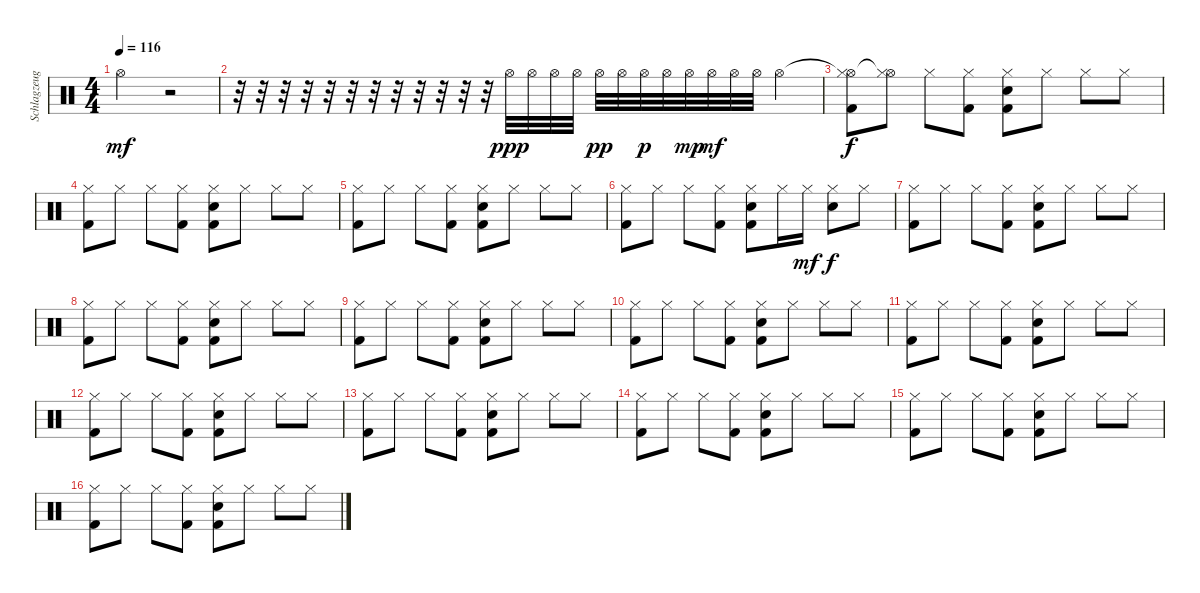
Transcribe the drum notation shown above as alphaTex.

\track ("Schlagzeug" "Schlagzeug") {instrument percussion}
\staff {score}
\articulation defaults
\ts (4 4)
\tempo 116
\clef neutral
\ks c "Hi-Hat (open)".2{dy mf}
r.2 |
r.32 r.32 r.32 r.32 r.32 r.32 r.32 r.32 r.32 r.32 r.32 r.32 "Hi-Hat (open)".32{dy ppp} "Hi-Hat (open)".32 "Hi-Hat (open)".32 "Hi-Hat (open)".32 "Hi-Hat (open)".32{dy pp} "Hi-Hat (open)".32 "Hi-Hat (open)".32{dy p} "Hi-Hat (open)".32 "Hi-Hat (open)".32{dy mp} "Hi-Hat (open)".32{dy mf} "Hi-Hat (open)".32 "Hi-Hat (open)".32 "Hi-Hat (open)".4 |
("Hi-Hat (open)"{t} "Hi-Hat (closed)" "Kick (hit) 2").8{dy f} ("Hi-Hat (open)"{t} "Hi-Hat (closed)").8 "Hi-Hat (closed)".8 ("Hi-Hat (closed)" "Kick (hit) 2").8 ("Snare (hit) 2" "Hi-Hat (closed)" "Kick (hit) 2").8 "Hi-Hat (closed)".8 "Hi-Hat (closed)".8 "Hi-Hat (closed)".8 |
("Hi-Hat (closed)" "Kick (hit) 2").8 "Hi-Hat (closed)".8 "Hi-Hat (closed)".8 ("Hi-Hat (closed)" "Kick (hit) 2").8 ("Snare (hit) 2" "Hi-Hat (closed)" "Kick (hit) 2").8 "Hi-Hat (closed)".8 "Hi-Hat (closed)".8 "Hi-Hat (closed)".8 |
("Hi-Hat (closed)" "Kick (hit) 2").8 "Hi-Hat (closed)".8 "Hi-Hat (closed)".8 ("Hi-Hat (closed)" "Kick (hit) 2").8 ("Snare (hit) 2" "Hi-Hat (closed)" "Kick (hit) 2").8 "Hi-Hat (closed)".8 "Hi-Hat (closed)".8 "Hi-Hat (closed)".8 |
("Hi-Hat (closed)" "Kick (hit) 2").8 "Hi-Hat (closed)".8 "Hi-Hat (closed)".8 ("Hi-Hat (closed)" "Kick (hit) 2").8 ("Snare (hit) 2" "Hi-Hat (closed)" "Kick (hit) 2").8 "Hi-Hat (closed)".16 "Hi-Hat (closed)".16{dy mf} ("Snare (hit) 2" "Hi-Hat (closed)").8{dy f} "Hi-Hat (closed)".8 |
("Hi-Hat (closed)" "Kick (hit) 2").8 "Hi-Hat (closed)".8 "Hi-Hat (closed)".8 ("Hi-Hat (closed)" "Kick (hit) 2").8 ("Snare (hit) 2" "Hi-Hat (closed)" "Kick (hit) 2").8 "Hi-Hat (closed)".8 "Hi-Hat (closed)".8 "Hi-Hat (closed)".8 |
("Hi-Hat (closed)" "Kick (hit) 2").8 "Hi-Hat (closed)".8 "Hi-Hat (closed)".8 ("Hi-Hat (closed)" "Kick (hit) 2").8 ("Snare (hit) 2" "Hi-Hat (closed)" "Kick (hit) 2").8 "Hi-Hat (closed)".8 "Hi-Hat (closed)".8 "Hi-Hat (closed)".8 |
("Hi-Hat (closed)" "Kick (hit) 2").8 "Hi-Hat (closed)".8 "Hi-Hat (closed)".8 ("Hi-Hat (closed)" "Kick (hit) 2").8 ("Snare (hit) 2" "Hi-Hat (closed)" "Kick (hit) 2").8 "Hi-Hat (closed)".8 "Hi-Hat (closed)".8 "Hi-Hat (closed)".8 |
("Hi-Hat (closed)" "Kick (hit) 2").8 "Hi-Hat (closed)".8 "Hi-Hat (closed)".8 ("Hi-Hat (closed)" "Kick (hit) 2").8 ("Snare (hit) 2" "Hi-Hat (closed)" "Kick (hit) 2").8 "Hi-Hat (closed)".8 "Hi-Hat (closed)".8 "Hi-Hat (closed)".8 |
("Hi-Hat (closed)" "Kick (hit) 2").8 "Hi-Hat (closed)".8 "Hi-Hat (closed)".8 ("Hi-Hat (closed)" "Kick (hit) 2").8 ("Snare (hit) 2" "Hi-Hat (closed)" "Kick (hit) 2").8 "Hi-Hat (closed)".8 "Hi-Hat (closed)".8 "Hi-Hat (closed)".8 |
("Hi-Hat (closed)" "Kick (hit) 2").8 "Hi-Hat (closed)".8 "Hi-Hat (closed)".8 ("Hi-Hat (closed)" "Kick (hit) 2").8 ("Snare (hit) 2" "Hi-Hat (closed)" "Kick (hit) 2").8 "Hi-Hat (closed)".8 "Hi-Hat (closed)".8 "Hi-Hat (closed)".8 |
("Hi-Hat (closed)" "Kick (hit) 2").8 "Hi-Hat (closed)".8 "Hi-Hat (closed)".8 ("Hi-Hat (closed)" "Kick (hit) 2").8 ("Snare (hit) 2" "Hi-Hat (closed)" "Kick (hit) 2").8 "Hi-Hat (closed)".8 "Hi-Hat (closed)".8 "Hi-Hat (closed)".8 |
("Hi-Hat (closed)" "Kick (hit) 2").8 "Hi-Hat (closed)".8 "Hi-Hat (closed)".8 ("Hi-Hat (closed)" "Kick (hit) 2").8 ("Snare (hit) 2" "Hi-Hat (closed)" "Kick (hit) 2").8 "Hi-Hat (closed)".8 "Hi-Hat (closed)".8 "Hi-Hat (closed)".8 |
("Hi-Hat (closed)" "Kick (hit) 2").8 "Hi-Hat (closed)".8 "Hi-Hat (closed)".8 ("Hi-Hat (closed)" "Kick (hit) 2").8 ("Snare (hit) 2" "Hi-Hat (closed)" "Kick (hit) 2").8 "Hi-Hat (closed)".8 "Hi-Hat (closed)".8 "Hi-Hat (closed)".8 |
("Hi-Hat (closed)" "Kick (hit) 2").8 "Hi-Hat (closed)".8 "Hi-Hat (closed)".8 ("Hi-Hat (closed)" "Kick (hit) 2").8 ("Snare (hit) 2" "Hi-Hat (closed)" "Kick (hit) 2").8 "Hi-Hat (closed)".8 "Hi-Hat (closed)".8 "Hi-Hat (closed)".8
